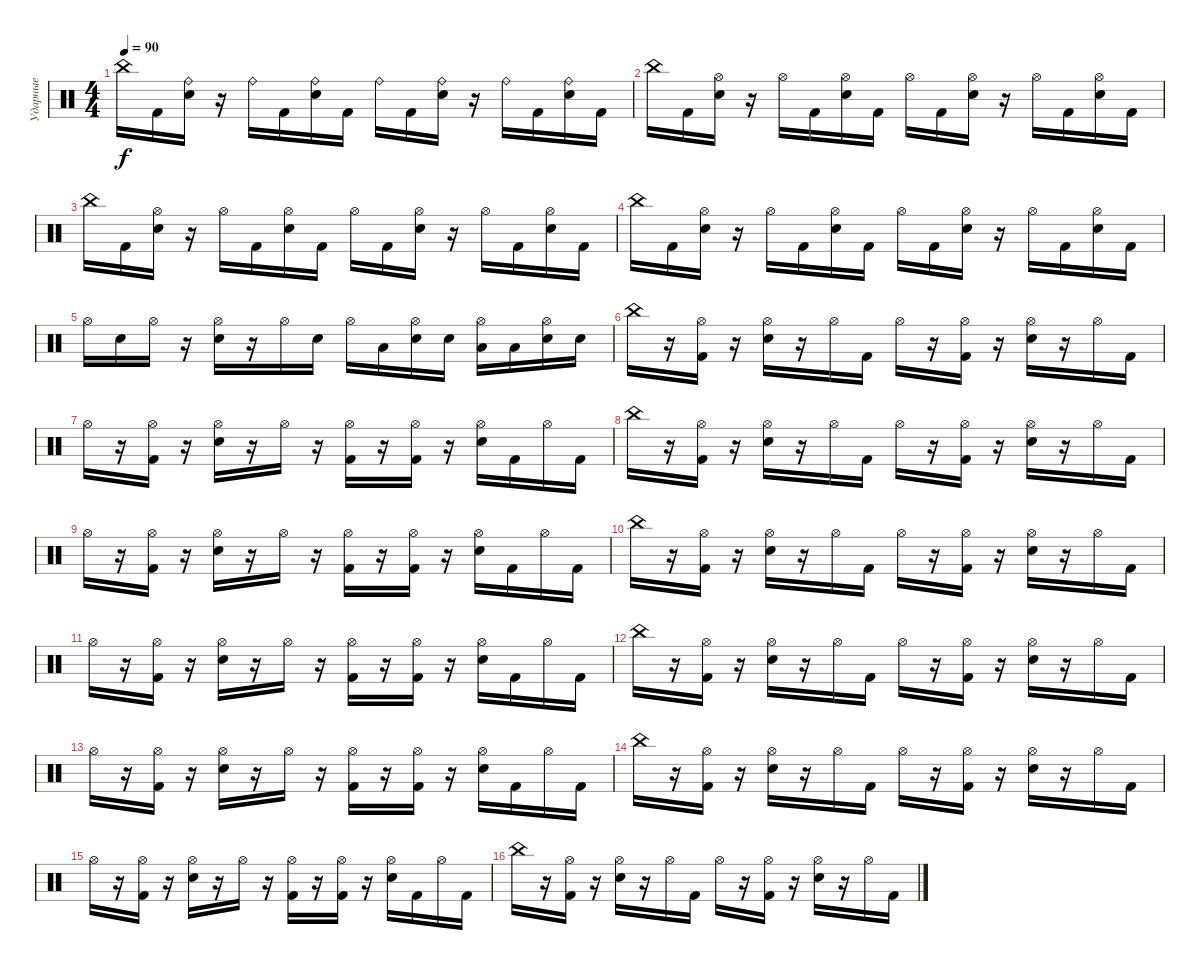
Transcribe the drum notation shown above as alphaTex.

\track ("Ударные" "Ударные") {instrument percussion}
\staff {score}
\articulation defaults
\ts (4 4)
\tempo 90
\clef neutral
\ks c "China (hit)".16{dy f} "Kick (hit) 2".16
("Ride (bell)" "Snare (hit) 2").16 r.16 "Ride (bell)".16 "Kick (hit) 2".16 ("Ride (bell)" "Snare (hit) 2").16 "Kick (hit) 2".16 "Ride (bell)".16 "Kick (hit) 2".16 ("Ride (bell)" "Snare (hit) 2").16 r.16 "Ride (bell)".16 "Kick (hit) 2".16 ("Ride (bell)" "Snare (hit) 2").16 "Kick (hit) 2".16 |
"China (hit)".16 "Kick (hit) 2".16 ("Hi-Hat (open)" "Snare (hit) 2").16 r.16 "Hi-Hat (open)".16 "Kick (hit) 2".16 ("Hi-Hat (open)" "Snare (hit) 2").16 "Kick (hit) 2".16 "Hi-Hat (open)".16 "Kick (hit) 2".16 ("Hi-Hat (open)" "Snare (hit) 2").16 r.16 "Hi-Hat (open)".16 "Kick (hit) 2".16 ("Hi-Hat (open)" "Snare (hit) 2").16 "Kick (hit) 2".16 |
"China (hit)".16 "Kick (hit) 2".16 ("Hi-Hat (open)" "Snare (hit) 2").16 r.16 "Hi-Hat (open)".16 "Kick (hit) 2".16 ("Hi-Hat (open)" "Snare (hit) 2").16 "Kick (hit) 2".16 "Hi-Hat (open)".16 "Kick (hit) 2".16 ("Hi-Hat (open)" "Snare (hit) 2").16 r.16 "Hi-Hat (open)".16 "Kick (hit) 2".16 ("Hi-Hat (open)" "Snare (hit) 2").16 "Kick (hit) 2".16 |
"China (hit)".16 "Kick (hit) 2".16 ("Hi-Hat (open)" "Snare (hit) 2").16 r.16 "Hi-Hat (open)".16 "Kick (hit) 2".16 ("Hi-Hat (open)" "Snare (hit) 2").16 "Kick (hit) 2".16 "Hi-Hat (open)".16 "Kick (hit) 2".16 ("Hi-Hat (open)" "Snare (hit) 2").16 r.16 "Hi-Hat (open)".16 "Kick (hit) 2".16 ("Hi-Hat (open)" "Snare (hit) 2").16 "Kick (hit) 2".16 |
"Hi-Hat (open)".16 "Snare (hit) 2".16 "Hi-Hat (open)".16 r.16 ("Hi-Hat (open)" "Snare (hit) 2").16 r.16 "Hi-Hat (open)".16 "Snare (hit) 2".16 "Hi-Hat (open)".16 "Low Floor Tom (hit)".16 ("Hi-Hat (open)" "Snare (hit) 2").16 "Snare (hit) 2".16 ("Hi-Hat (open)" "Low Tom (hit)").16 "Low Tom (hit)".16 ("Hi-Hat (open)" "Snare (hit) 2").16 "Snare (hit) 2".16 |
"China (hit)".16 r.16 ("Hi-Hat (open)" "Kick (hit) 2").16 r.16 ("Hi-Hat (open)" "Snare (hit) 2").16 r.16 "Hi-Hat (open)".16 "Kick (hit) 2".16 "Hi-Hat (open)".16 r.16 ("Hi-Hat (open)" "Kick (hit) 2").16 r.16 ("Hi-Hat (open)" "Snare (hit) 2").16 r.16 "Hi-Hat (open)".16 "Kick (hit) 2".16 |
"Hi-Hat (open)".16 r.16 ("Hi-Hat (open)" "Kick (hit) 2").16 r.16 ("Hi-Hat (open)" "Snare (hit) 2").16 r.16 "Hi-Hat (open)".16 r.16 ("Hi-Hat (open)" "Kick (hit) 2").16 r.16 ("Hi-Hat (open)" "Kick (hit) 2").16 r.16 ("Hi-Hat (open)" "Snare (hit) 2").16 "Kick (hit) 2".16 "Hi-Hat (open)".16 "Kick (hit) 2".16 |
"China (hit)".16 r.16 ("Hi-Hat (open)" "Kick (hit) 2").16 r.16 ("Hi-Hat (open)" "Snare (hit) 2").16 r.16 "Hi-Hat (open)".16 "Kick (hit) 2".16 "Hi-Hat (open)".16 r.16 ("Hi-Hat (open)" "Kick (hit) 2").16 r.16 ("Hi-Hat (open)" "Snare (hit) 2").16 r.16 "Hi-Hat (open)".16 "Kick (hit) 2".16 |
"Hi-Hat (open)".16 r.16 ("Hi-Hat (open)" "Kick (hit) 2").16 r.16 ("Hi-Hat (open)" "Snare (hit) 2").16 r.16 "Hi-Hat (open)".16 r.16 ("Hi-Hat (open)" "Kick (hit) 2").16 r.16 ("Hi-Hat (open)" "Kick (hit) 2").16 r.16 ("Hi-Hat (open)" "Snare (hit) 2").16 "Kick (hit) 2".16 "Hi-Hat (open)".16 "Kick (hit) 2".16 |
"China (hit)".16 r.16 ("Hi-Hat (open)" "Kick (hit) 2").16 r.16 ("Hi-Hat (open)" "Snare (hit) 2").16 r.16 "Hi-Hat (open)".16 "Kick (hit) 2".16 "Hi-Hat (open)".16 r.16 ("Hi-Hat (open)" "Kick (hit) 2").16 r.16 ("Hi-Hat (open)" "Snare (hit) 2").16 r.16 "Hi-Hat (open)".16 "Kick (hit) 2".16 |
"Hi-Hat (open)".16 r.16 ("Hi-Hat (open)" "Kick (hit) 2").16 r.16 ("Hi-Hat (open)" "Snare (hit) 2").16 r.16 "Hi-Hat (open)".16 r.16 ("Hi-Hat (open)" "Kick (hit) 2").16 r.16 ("Hi-Hat (open)" "Kick (hit) 2").16 r.16 ("Hi-Hat (open)" "Snare (hit) 2").16 "Kick (hit) 2".16 "Hi-Hat (open)".16 "Kick (hit) 2".16 |
"China (hit)".16 r.16 ("Hi-Hat (open)" "Kick (hit) 2").16 r.16 ("Hi-Hat (open)" "Snare (hit) 2").16 r.16 "Hi-Hat (open)".16 "Kick (hit) 2".16 "Hi-Hat (open)".16 r.16 ("Hi-Hat (open)" "Kick (hit) 2").16 r.16 ("Hi-Hat (open)" "Snare (hit) 2").16 r.16 "Hi-Hat (open)".16 "Kick (hit) 2".16 |
"Hi-Hat (open)".16 r.16 ("Hi-Hat (open)" "Kick (hit) 2").16 r.16 ("Hi-Hat (open)" "Snare (hit) 2").16 r.16 "Hi-Hat (open)".16 r.16 ("Hi-Hat (open)" "Kick (hit) 2").16 r.16 ("Hi-Hat (open)" "Kick (hit) 2").16 r.16 ("Hi-Hat (open)" "Snare (hit) 2").16 "Kick (hit) 2".16 "Hi-Hat (open)".16 "Kick (hit) 2".16 |
"China (hit)".16 r.16 ("Hi-Hat (open)" "Kick (hit) 2").16 r.16 ("Hi-Hat (open)" "Snare (hit) 2").16 r.16 "Hi-Hat (open)".16 "Kick (hit) 2".16 "Hi-Hat (open)".16 r.16 ("Hi-Hat (open)" "Kick (hit) 2").16 r.16 ("Hi-Hat (open)" "Snare (hit) 2").16 r.16 "Hi-Hat (open)".16 "Kick (hit) 2".16 |
"Hi-Hat (open)".16 r.16 ("Hi-Hat (open)" "Kick (hit) 2").16 r.16 ("Hi-Hat (open)" "Snare (hit) 2").16 r.16 "Hi-Hat (open)".16 r.16 ("Hi-Hat (open)" "Kick (hit) 2").16 r.16 ("Hi-Hat (open)" "Kick (hit) 2").16 r.16 ("Hi-Hat (open)" "Snare (hit) 2").16 "Kick (hit) 2".16 "Hi-Hat (open)".16 "Kick (hit) 2".16 |
"China (hit)".16 r.16 ("Hi-Hat (open)" "Kick (hit) 2").16 r.16 ("Hi-Hat (open)" "Snare (hit) 2").16 r.16 "Hi-Hat (open)".16 "Kick (hit) 2".16 "Hi-Hat (open)".16 r.16 ("Hi-Hat (open)" "Kick (hit) 2").16 r.16 ("Hi-Hat (open)" "Snare (hit) 2").16 r.16 "Hi-Hat (open)".16 "Kick (hit) 2".16
